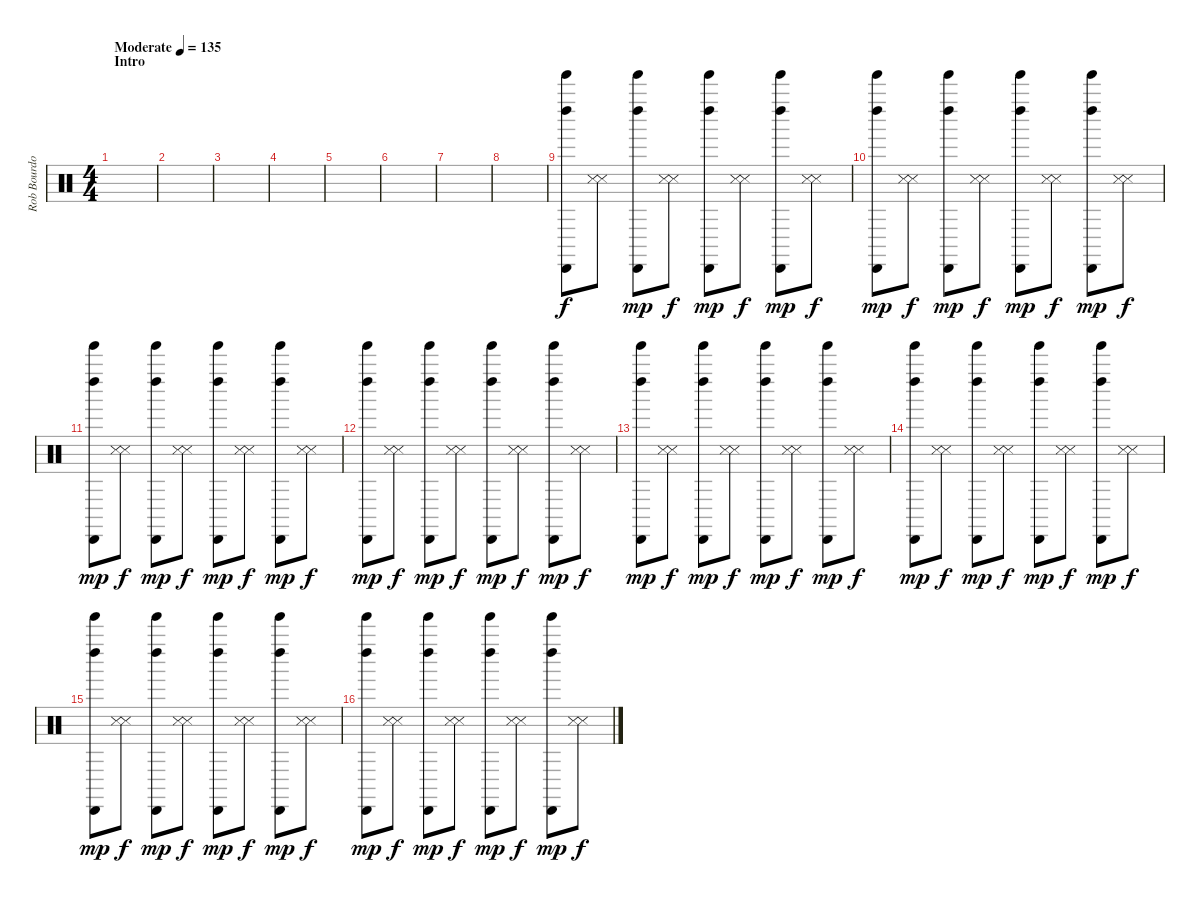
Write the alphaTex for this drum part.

\track ("Rob Bourdon - Beats & Drums" "Rob Bourdo") {instrument percussion}
\staff {score}
\articulation defaults
\ts (4 4)
\section ("" "Intro")
\tempo (135 "Moderate")
\clef neutral
\ks c
|
|
|
|
|
|
|
|
("Tinkle Bell (hit)" "Cabasa (hit)" "Left Maraca (hit)").8 ("Metronome (hit)" "Snare (side stick) 3").8{dy f} ("Tinkle Bell (hit)" "Cabasa (hit)" "Left Maraca (hit)").8{dy mp} ("Metronome (hit)" "Snare (side stick) 3").8{dy f} ("Tinkle Bell (hit)" "Cabasa (hit)" "Left Maraca (hit)").8{dy mp} ("Metronome (hit)" "Snare (side stick) 3").8{dy f} ("Tinkle Bell (hit)" "Cabasa (hit)" "Left Maraca (hit)").8{dy mp} ("Metronome (hit)" "Snare (side stick) 3").8{dy f} |
("Tinkle Bell (hit)" "Cabasa (hit)" "Left Maraca (hit)").8{dy mp} ("Metronome (hit)" "Snare (side stick) 3").8{dy f} ("Tinkle Bell (hit)" "Cabasa (hit)" "Left Maraca (hit)").8{dy mp} ("Metronome (hit)" "Snare (side stick) 3").8{dy f} ("Tinkle Bell (hit)" "Cabasa (hit)" "Left Maraca (hit)").8{dy mp} ("Metronome (hit)" "Snare (side stick) 3").8{dy f} ("Tinkle Bell (hit)" "Cabasa (hit)" "Left Maraca (hit)").8{dy mp} ("Metronome (hit)" "Snare (side stick) 3").8{dy f} |
("Tinkle Bell (hit)" "Cabasa (hit)" "Left Maraca (hit)").8{dy mp} ("Metronome (hit)" "Snare (side stick) 3").8{dy f} ("Tinkle Bell (hit)" "Cabasa (hit)" "Left Maraca (hit)").8{dy mp} ("Metronome (hit)" "Snare (side stick) 3").8{dy f} ("Tinkle Bell (hit)" "Cabasa (hit)" "Left Maraca (hit)").8{dy mp} ("Metronome (hit)" "Snare (side stick) 3").8{dy f} ("Tinkle Bell (hit)" "Cabasa (hit)" "Left Maraca (hit)").8{dy mp} ("Metronome (hit)" "Snare (side stick) 3").8{dy f} |
("Tinkle Bell (hit)" "Cabasa (hit)" "Left Maraca (hit)").8{dy mp} ("Metronome (hit)" "Snare (side stick) 3").8{dy f} ("Tinkle Bell (hit)" "Cabasa (hit)" "Left Maraca (hit)").8{dy mp} ("Metronome (hit)" "Snare (side stick) 3").8{dy f} ("Tinkle Bell (hit)" "Cabasa (hit)" "Left Maraca (hit)").8{dy mp} ("Metronome (hit)" "Snare (side stick) 3").8{dy f} ("Tinkle Bell (hit)" "Cabasa (hit)" "Left Maraca (hit)").8{dy mp} ("Metronome (hit)" "Snare (side stick) 3").8{dy f} |
("Tinkle Bell (hit)" "Cabasa (hit)" "Left Maraca (hit)").8{dy mp} ("Metronome (hit)" "Snare (side stick) 3").8{dy f} ("Tinkle Bell (hit)" "Cabasa (hit)" "Left Maraca (hit)").8{dy mp} ("Metronome (hit)" "Snare (side stick) 3").8{dy f} ("Tinkle Bell (hit)" "Cabasa (hit)" "Left Maraca (hit)").8{dy mp} ("Metronome (hit)" "Snare (side stick) 3").8{dy f} ("Tinkle Bell (hit)" "Cabasa (hit)" "Left Maraca (hit)").8{dy mp} ("Metronome (hit)" "Snare (side stick) 3").8{dy f} |
("Tinkle Bell (hit)" "Cabasa (hit)" "Left Maraca (hit)").8{dy mp} ("Metronome (hit)" "Snare (side stick) 3").8{dy f} ("Tinkle Bell (hit)" "Cabasa (hit)" "Left Maraca (hit)").8{dy mp} ("Metronome (hit)" "Snare (side stick) 3").8{dy f} ("Tinkle Bell (hit)" "Cabasa (hit)" "Left Maraca (hit)").8{dy mp} ("Metronome (hit)" "Snare (side stick) 3").8{dy f} ("Tinkle Bell (hit)" "Cabasa (hit)" "Left Maraca (hit)").8{dy mp} ("Metronome (hit)" "Snare (side stick) 3").8{dy f} |
("Tinkle Bell (hit)" "Cabasa (hit)" "Left Maraca (hit)").8{dy mp} ("Metronome (hit)" "Snare (side stick) 3").8{dy f} ("Tinkle Bell (hit)" "Cabasa (hit)" "Left Maraca (hit)").8{dy mp} ("Metronome (hit)" "Snare (side stick) 3").8{dy f} ("Tinkle Bell (hit)" "Cabasa (hit)" "Left Maraca (hit)").8{dy mp} ("Metronome (hit)" "Snare (side stick) 3").8{dy f} ("Tinkle Bell (hit)" "Cabasa (hit)" "Left Maraca (hit)").8{dy mp} ("Metronome (hit)" "Snare (side stick) 3").8{dy f} |
("Tinkle Bell (hit)" "Cabasa (hit)" "Left Maraca (hit)").8{dy mp} ("Metronome (hit)" "Snare (side stick) 3").8{dy f} ("Tinkle Bell (hit)" "Cabasa (hit)" "Left Maraca (hit)").8{dy mp} ("Metronome (hit)" "Snare (side stick) 3").8{dy f} ("Tinkle Bell (hit)" "Cabasa (hit)" "Left Maraca (hit)").8{dy mp} ("Metronome (hit)" "Snare (side stick) 3").8{dy f} ("Tinkle Bell (hit)" "Cabasa (hit)" "Left Maraca (hit)").8{dy mp} ("Metronome (hit)" "Snare (side stick) 3").8{dy f}
